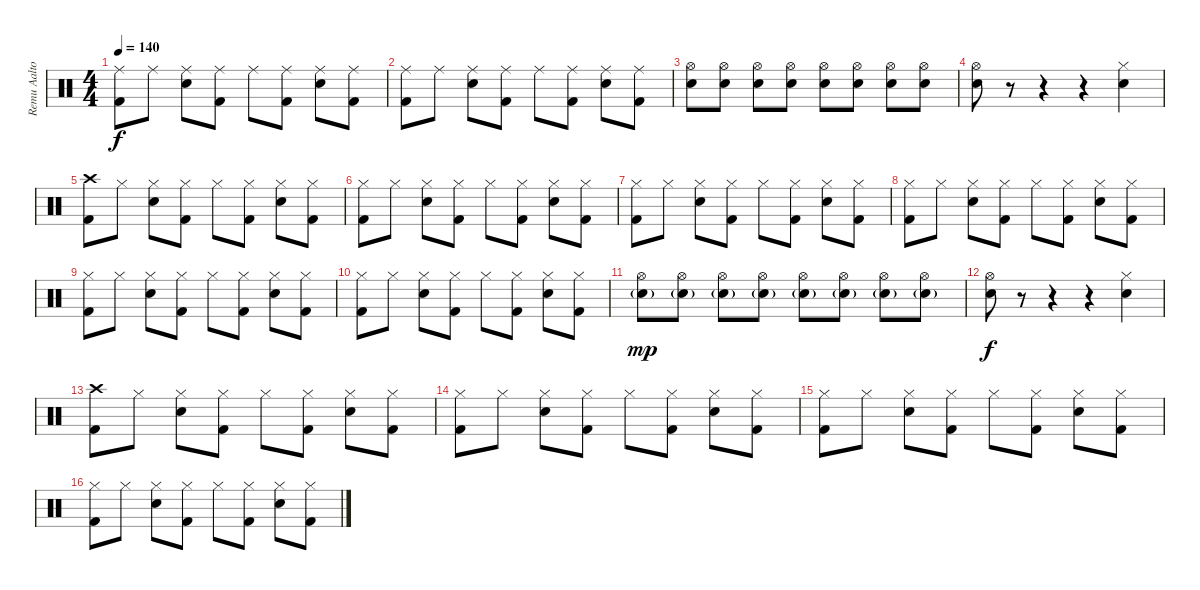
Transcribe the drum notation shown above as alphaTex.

\track ("Remu Aaltonen" "Remu Aalto") {instrument percussion}
\staff {score}
\articulation defaults
\ts (4 4)
\tempo 140
\clef neutral
\ks c
("Ride (middle)" "Kick (hit) 2").8{dy f} "Ride (middle)".8 ("Ride (middle)" "Snare (hit) 2").8 ("Ride (middle)" "Kick (hit) 2").8 "Ride (middle)".8 ("Ride (middle)" "Kick (hit) 2").8 ("Ride (middle)" "Snare (hit) 2").8 ("Ride (middle)" "Kick (hit) 2").8 |
("Ride (middle)" "Kick (hit) 2").8 "Ride (middle)".8 ("Ride (middle)" "Snare (hit) 2").8 ("Ride (middle)" "Kick (hit) 2").8 "Ride (middle)".8 ("Ride (middle)" "Kick (hit) 2").8 ("Ride (middle)" "Snare (hit) 2").8 ("Ride (middle)" "Kick (hit) 2").8 |
("Hi-Hat (open)" "Snare (hit) 2").8{volume 5} ("Hi-Hat (open)" "Snare (hit) 2").8{volume 13} ("Hi-Hat (open)" "Snare (hit) 2").8 ("Hi-Hat (open)" "Snare (hit) 2").8 ("Hi-Hat (open)" "Snare (hit) 2").8 ("Hi-Hat (open)" "Snare (hit) 2").8 ("Hi-Hat (open)" "Snare (hit) 2").8 ("Hi-Hat (open)" "Snare (hit) 2").8 |
("Hi-Hat (open)" "Snare (hit) 2").8 r.8 r.4 r.4 ("Hi-Hat (closed)" "Snare (hit) 2").4 |
("Crash high (hit)" "Kick (hit) 2").8 "Hi-Hat (closed)".8 ("Hi-Hat (closed)" "Snare (hit) 2").8 ("Hi-Hat (closed)" "Kick (hit) 2").8 "Hi-Hat (closed)".8 ("Hi-Hat (closed)" "Kick (hit) 2").8 ("Hi-Hat (closed)" "Snare (hit) 2").8 ("Hi-Hat (closed)" "Kick (hit) 2").8 |
("Hi-Hat (closed)" "Kick (hit) 2").8 "Hi-Hat (closed)".8 ("Hi-Hat (closed)" "Snare (hit) 2").8 ("Hi-Hat (closed)" "Kick (hit) 2").8 "Hi-Hat (closed)".8 ("Hi-Hat (closed)" "Kick (hit) 2").8 ("Hi-Hat (closed)" "Snare (hit) 2").8 ("Hi-Hat (closed)" "Kick (hit) 2").8 |
("Hi-Hat (closed)" "Kick (hit) 2").8 "Hi-Hat (closed)".8 ("Hi-Hat (closed)" "Snare (hit) 2").8 ("Hi-Hat (closed)" "Kick (hit) 2").8 "Hi-Hat (closed)".8 ("Hi-Hat (closed)" "Kick (hit) 2").8 ("Hi-Hat (closed)" "Snare (hit) 2").8 ("Hi-Hat (closed)" "Kick (hit) 2").8 |
("Hi-Hat (closed)" "Kick (hit) 2").8 "Hi-Hat (closed)".8 ("Hi-Hat (closed)" "Snare (hit) 2").8 ("Hi-Hat (closed)" "Kick (hit) 2").8 "Hi-Hat (closed)".8 ("Hi-Hat (closed)" "Kick (hit) 2").8 ("Hi-Hat (closed)" "Snare (hit) 2").8 ("Hi-Hat (closed)" "Kick (hit) 2").8 |
("Hi-Hat (closed)" "Kick (hit) 2").8 "Hi-Hat (closed)".8 ("Hi-Hat (closed)" "Snare (hit) 2").8 ("Hi-Hat (closed)" "Kick (hit) 2").8 "Hi-Hat (closed)".8 ("Hi-Hat (closed)" "Kick (hit) 2").8 ("Hi-Hat (closed)" "Snare (hit) 2").8 ("Hi-Hat (closed)" "Kick (hit) 2").8 |
("Hi-Hat (closed)" "Kick (hit) 2").8 "Hi-Hat (closed)".8 ("Hi-Hat (closed)" "Snare (hit) 2").8 ("Hi-Hat (closed)" "Kick (hit) 2").8 "Hi-Hat (closed)".8 ("Hi-Hat (closed)" "Kick (hit) 2").8 ("Hi-Hat (closed)" "Snare (hit) 2").8 ("Hi-Hat (closed)" "Kick (hit) 2").8 |
("Hi-Hat (open)" "Snare (hit) 2"{g}).8{dy mp} ("Hi-Hat (open)" "Snare (hit) 2"{g}).8 ("Hi-Hat (open)" "Snare (hit) 2"{g}).8 ("Hi-Hat (open)" "Snare (hit) 2"{g}).8 ("Hi-Hat (open)" "Snare (hit) 2"{g}).8 ("Hi-Hat (open)" "Snare (hit) 2"{g}).8 ("Hi-Hat (open)" "Snare (hit) 2"{g}).8 ("Hi-Hat (open)" "Snare (hit) 2"{g}).8 |
("Hi-Hat (open)" "Snare (hit) 2").8{dy f} r.8 r.4 r.4 ("Hi-Hat (closed)" "Snare (hit) 2").4 |
("Crash high (hit)" "Kick (hit) 2").8 "Hi-Hat (closed)".8 ("Hi-Hat (closed)" "Snare (hit) 2").8 ("Hi-Hat (closed)" "Kick (hit) 2").8 "Hi-Hat (closed)".8 ("Hi-Hat (closed)" "Kick (hit) 2").8 ("Hi-Hat (closed)" "Snare (hit) 2").8 ("Hi-Hat (closed)" "Kick (hit) 2").8 |
("Hi-Hat (closed)" "Kick (hit) 2").8 "Hi-Hat (closed)".8 ("Hi-Hat (closed)" "Snare (hit) 2").8 ("Hi-Hat (closed)" "Kick (hit) 2").8 "Hi-Hat (closed)".8 ("Hi-Hat (closed)" "Kick (hit) 2").8 ("Hi-Hat (closed)" "Snare (hit) 2").8 ("Hi-Hat (closed)" "Kick (hit) 2").8 |
("Hi-Hat (closed)" "Kick (hit) 2").8 "Hi-Hat (closed)".8 ("Hi-Hat (closed)" "Snare (hit) 2").8 ("Hi-Hat (closed)" "Kick (hit) 2").8 "Hi-Hat (closed)".8 ("Hi-Hat (closed)" "Kick (hit) 2").8 ("Hi-Hat (closed)" "Snare (hit) 2").8 ("Hi-Hat (closed)" "Kick (hit) 2").8 |
("Hi-Hat (closed)" "Kick (hit) 2").8 "Hi-Hat (closed)".8 ("Hi-Hat (closed)" "Snare (hit) 2").8 ("Hi-Hat (closed)" "Kick (hit) 2").8 "Hi-Hat (closed)".8 ("Hi-Hat (closed)" "Kick (hit) 2").8 ("Hi-Hat (closed)" "Snare (hit) 2").8 ("Hi-Hat (closed)" "Kick (hit) 2").8
